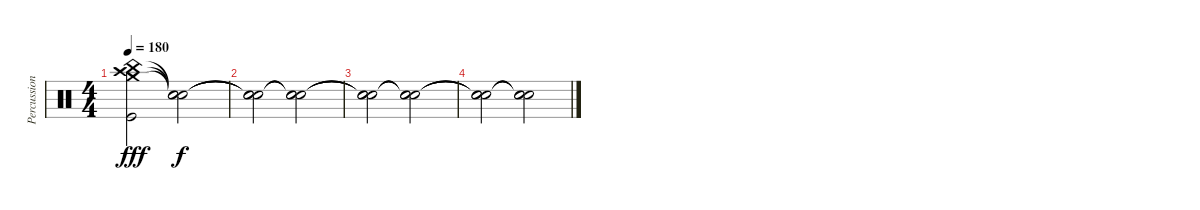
\track ("Percussion" "Percussion") {instrument percussion}
\staff {score}
\articulation defaults
\ts (4 4)
\tempo 180
\clef neutral
\ks c
("Crash medium (hit)" "Crash high (hit)" "China (hit)" "Kick (hit)").2{dy fff} ("Snare (hit)"{t} "Snare (hit)"{t} "Snare (hit)"{t}).2{dy f} |
("Snare (hit)"{t} "Snare (hit)"{t} "Snare (hit)"{t}).2 ("Snare (hit)"{t} "Snare (hit)"{t} "Snare (hit)"{t}).2 |
("Snare (hit)"{t} "Snare (hit)"{t} "Snare (hit)"{t}).2 ("Snare (hit)"{t} "Snare (hit)"{t} "Snare (hit)"{t}).2 |
("Snare (hit)"{t} "Snare (hit)"{t} "Snare (hit)"{t}).2 ("Snare (hit)"{t} "Snare (hit)"{t} "Snare (hit)"{t}).2
